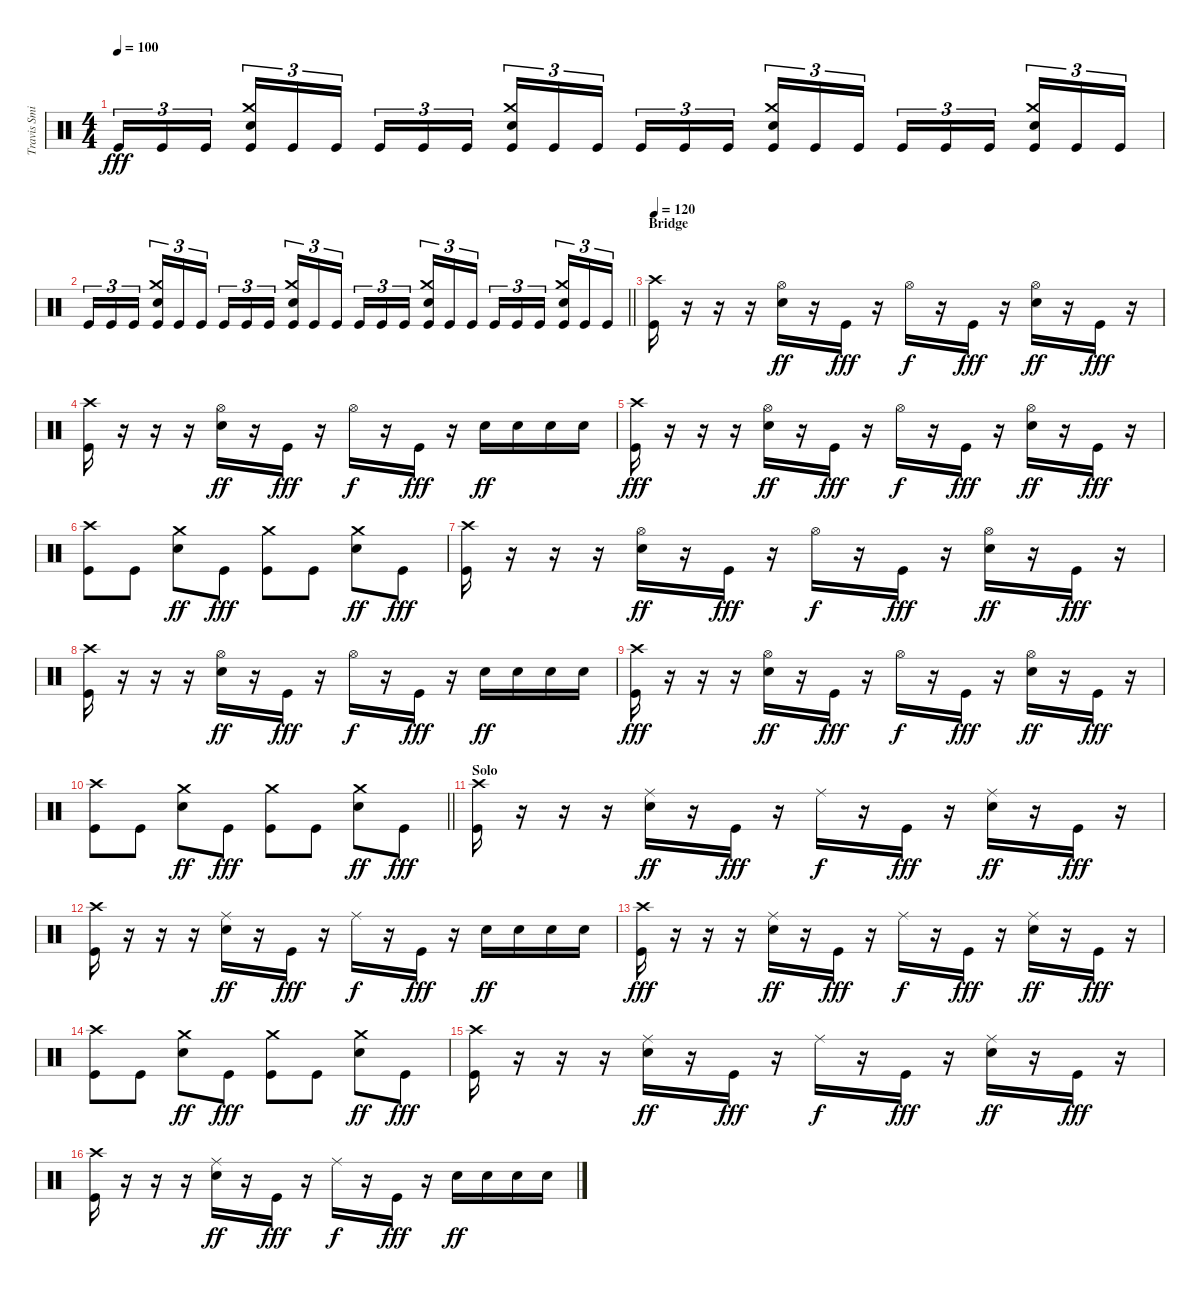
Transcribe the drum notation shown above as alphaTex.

\track ("Travis Smith" "Travis Smi") {instrument percussion}
\staff {score}
\articulation defaults
\ts (4 4)
\tempo 100
\clef neutral
\ks c "Kick (hit)".16{tu (3 2) dy fff} "Kick (hit)".16{tu (3 2)} "Kick (hit)".16{tu (3 2) beam splitsecondary}
("Crash medium (hit)" "Electric Snare (hit)" "Kick (hit)").16{tu (3 2)} "Kick (hit)".16{tu (3 2)} "Kick (hit)".16{tu (3 2)} "Kick (hit)".16{tu (3 2)} "Kick (hit)".16{tu (3 2)} "Kick (hit)".16{tu (3 2) beam splitsecondary} ("Crash medium (hit)" "Electric Snare (hit)" "Kick (hit)").16{tu (3 2)} "Kick (hit)".16{tu (3 2)} "Kick (hit)".16{tu (3 2)} "Kick (hit)".16{tu (3 2)} "Kick (hit)".16{tu (3 2)} "Kick (hit)".16{tu (3 2) beam splitsecondary} ("Crash medium (hit)" "Electric Snare (hit)" "Kick (hit)").16{tu (3 2)} "Kick (hit)".16{tu (3 2)} "Kick (hit)".16{tu (3 2)} "Kick (hit)".16{tu (3 2)} "Kick (hit)".16{tu (3 2)} "Kick (hit)".16{tu (3 2) beam splitsecondary} ("Crash medium (hit)" "Electric Snare (hit)" "Kick (hit)").16{tu (3 2)} "Kick (hit)".16{tu (3 2)} "Kick (hit)".16{tu (3 2)} |
\barLineRight lightlight "Kick (hit)".16{tu (3 2)} "Kick (hit)".16{tu (3 2)} "Kick (hit)".16{tu (3 2) beam splitsecondary}
("Crash medium (hit)" "Electric Snare (hit)" "Kick (hit)").16{tu (3 2)} "Kick (hit)".16{tu (3 2)} "Kick (hit)".16{tu (3 2)} "Kick (hit)".16{tu (3 2)} "Kick (hit)".16{tu (3 2)} "Kick (hit)".16{tu (3 2) beam splitsecondary} ("Crash medium (hit)" "Electric Snare (hit)" "Kick (hit)").16{tu (3 2)} "Kick (hit)".16{tu (3 2)} "Kick (hit)".16{tu (3 2)} "Kick (hit)".16{tu (3 2)} "Kick (hit)".16{tu (3 2)} "Kick (hit)".16{tu (3 2) beam splitsecondary} ("Crash medium (hit)" "Electric Snare (hit)" "Kick (hit)").16{tu (3 2)} "Kick (hit)".16{tu (3 2)} "Kick (hit)".16{tu (3 2)} "Kick (hit)".16{tu (3 2)} "Kick (hit)".16{tu (3 2)} "Kick (hit)".16{tu (3 2) beam splitsecondary} ("Crash medium (hit)" "Electric Snare (hit)" "Kick (hit)").16{tu (3 2)} "Kick (hit)".16{tu (3 2)} "Kick (hit)".16{tu (3 2)} |
\section ("" "Bridge")
\tempo 120
("Crash high (hit)" "Kick (hit)").16 r.16 r.16 r.16 ("Hi-Hat (open)" "Electric Snare (hit)").16{dy ff} r.16 "Kick (hit)".16{dy fff} r.16 "Hi-Hat (open)".16{dy f} r.16 "Kick (hit)".16{dy fff} r.16 ("Hi-Hat (open)" "Electric Snare (hit)").16{dy ff} r.16 "Kick (hit)".16{dy fff} r.16 |
("Crash high (hit)" "Kick (hit)").16 r.16 r.16 r.16 ("Hi-Hat (open)" "Electric Snare (hit)").16{dy ff} r.16 "Kick (hit)".16{dy fff} r.16 "Hi-Hat (open)".16{dy f} r.16 "Kick (hit)".16{dy fff} r.16 "Electric Snare (hit)".16{dy ff} "Electric Snare (hit)".16 "Electric Snare (hit)".16 "Electric Snare (hit)".16 |
("Crash high (hit)" "Kick (hit)").16{dy fff} r.16 r.16 r.16 ("Hi-Hat (open)" "Electric Snare (hit)").16{dy ff} r.16 "Kick (hit)".16{dy fff} r.16 "Hi-Hat (open)".16{dy f} r.16 "Kick (hit)".16{dy fff} r.16 ("Hi-Hat (open)" "Electric Snare (hit)").16{dy ff} r.16 "Kick (hit)".16{dy fff} r.16 |
("Crash high (hit)" "Kick (hit)").8 "Kick (hit)".8 ("Crash medium (hit)" "Electric Snare (hit)").8{dy ff} "Kick (hit)".8{dy fff} ("Crash medium (hit)" "Kick (hit)").8 "Kick (hit)".8 ("Crash medium (hit)" "Electric Snare (hit)").8{dy ff} "Kick (hit)".8{dy fff} |
("Crash high (hit)" "Kick (hit)").16 r.16 r.16 r.16 ("Hi-Hat (open)" "Electric Snare (hit)").16{dy ff} r.16 "Kick (hit)".16{dy fff} r.16 "Hi-Hat (open)".16{dy f} r.16 "Kick (hit)".16{dy fff} r.16 ("Hi-Hat (open)" "Electric Snare (hit)").16{dy ff} r.16 "Kick (hit)".16{dy fff} r.16 |
("Crash high (hit)" "Kick (hit)").16 r.16 r.16 r.16 ("Hi-Hat (open)" "Electric Snare (hit)").16{dy ff} r.16 "Kick (hit)".16{dy fff} r.16 "Hi-Hat (open)".16{dy f} r.16 "Kick (hit)".16{dy fff} r.16 "Electric Snare (hit)".16{dy ff} "Electric Snare (hit)".16 "Electric Snare (hit)".16 "Electric Snare (hit)".16 |
("Crash high (hit)" "Kick (hit)").16{dy fff} r.16 r.16 r.16 ("Hi-Hat (open)" "Electric Snare (hit)").16{dy ff} r.16 "Kick (hit)".16{dy fff} r.16 "Hi-Hat (open)".16{dy f} r.16 "Kick (hit)".16{dy fff} r.16 ("Hi-Hat (open)" "Electric Snare (hit)").16{dy ff} r.16 "Kick (hit)".16{dy fff} r.16 |
\barLineRight lightlight
("Crash high (hit)" "Kick (hit)").8 "Kick (hit)".8 ("Crash medium (hit)" "Electric Snare (hit)").8{dy ff} "Kick (hit)".8{dy fff} ("Crash medium (hit)" "Kick (hit)").8 "Kick (hit)".8 ("Crash medium (hit)" "Electric Snare (hit)").8{dy ff} "Kick (hit)".8{dy fff} |
\section ("" "Solo")
("Crash high (hit)" "Kick (hit)").16 r.16 r.16 r.16 ("Ride (middle)" "Electric Snare (hit)").16{dy ff} r.16 "Kick (hit)".16{dy fff} r.16 "Ride (middle)".16{dy f} r.16 "Kick (hit)".16{dy fff} r.16 ("Ride (middle)" "Electric Snare (hit)").16{dy ff} r.16 "Kick (hit)".16{dy fff} r.16 |
("Crash high (hit)" "Kick (hit)").16 r.16 r.16 r.16 ("Ride (middle)" "Electric Snare (hit)").16{dy ff} r.16 "Kick (hit)".16{dy fff} r.16 "Ride (middle)".16{dy f} r.16 "Kick (hit)".16{dy fff} r.16 "Electric Snare (hit)".16{dy ff} "Electric Snare (hit)".16 "Electric Snare (hit)".16 "Electric Snare (hit)".16 |
("Crash high (hit)" "Kick (hit)").16{dy fff} r.16 r.16 r.16 ("Ride (middle)" "Electric Snare (hit)").16{dy ff} r.16 "Kick (hit)".16{dy fff} r.16 "Ride (middle)".16{dy f} r.16 "Kick (hit)".16{dy fff} r.16 ("Ride (middle)" "Electric Snare (hit)").16{dy ff} r.16 "Kick (hit)".16{dy fff} r.16 |
("Crash high (hit)" "Kick (hit)").8 "Kick (hit)".8 ("Crash medium (hit)" "Electric Snare (hit)").8{dy ff} "Kick (hit)".8{dy fff} ("Crash medium (hit)" "Kick (hit)").8 "Kick (hit)".8 ("Crash medium (hit)" "Electric Snare (hit)").8{dy ff} "Kick (hit)".8{dy fff} |
("Crash high (hit)" "Kick (hit)").16 r.16 r.16 r.16 ("Ride (middle)" "Electric Snare (hit)").16{dy ff} r.16 "Kick (hit)".16{dy fff} r.16 "Ride (middle)".16{dy f} r.16 "Kick (hit)".16{dy fff} r.16 ("Ride (middle)" "Electric Snare (hit)").16{dy ff} r.16 "Kick (hit)".16{dy fff} r.16 |
("Crash high (hit)" "Kick (hit)").16 r.16 r.16 r.16 ("Ride (middle)" "Electric Snare (hit)").16{dy ff} r.16 "Kick (hit)".16{dy fff} r.16 "Ride (middle)".16{dy f} r.16 "Kick (hit)".16{dy fff} r.16 "Electric Snare (hit)".16{dy ff} "Electric Snare (hit)".16 "Electric Snare (hit)".16 "Electric Snare (hit)".16
